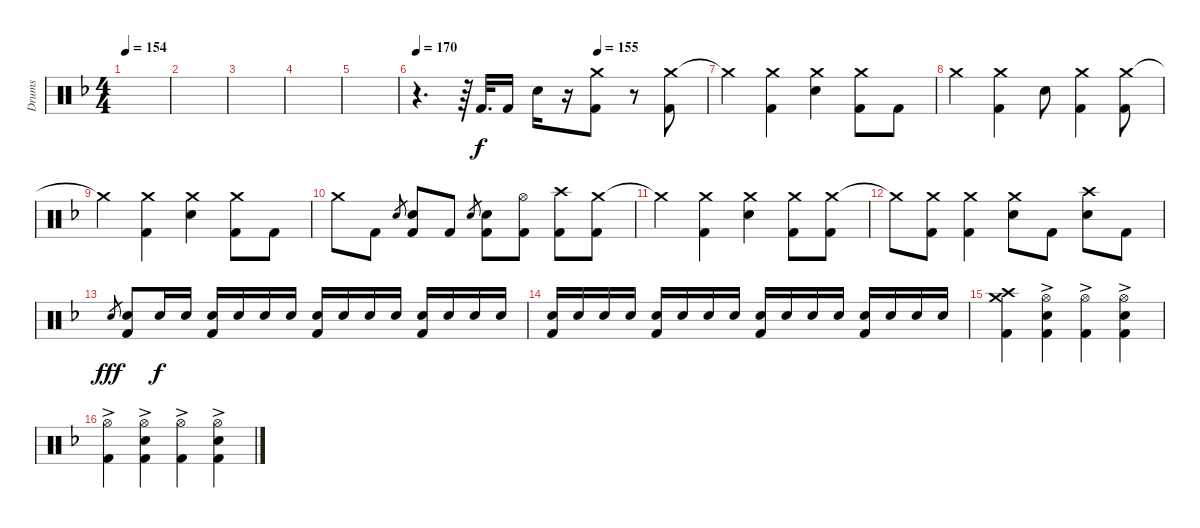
\track ("Drums" "Drums") {instrument percussion}
\staff {score}
\articulation defaults
\ts (4 4)
\tempo 154
\clef neutral
\ks dminor
|
|
|
|
|
\tempo 170
\tempo (155 0.625)
r.4{d} r.64 "Kick (hit) 2".32{d dy f} "Kick (hit) 2".16 "Snare (hit) 2".16 r.16 ("Crash medium (hit)" "Kick (hit) 2").8 r.8 ("Crash medium (hit)" "Kick (hit) 2").8 |
"Crash medium (hit)"{t}.4 ("Crash medium (hit)" "Kick (hit) 2").4 ("Crash medium (hit)" "Snare (hit) 2").4 ("Crash medium (hit)" "Kick (hit) 2").8 "Kick (hit) 2".8 |
"Crash medium (hit)".4 ("Crash medium (hit)" "Kick (hit) 2").4 "Snare (hit) 2".8 ("Crash medium (hit)" "Kick (hit) 2").4 ("Crash medium (hit)" "Kick (hit) 2").8 |
"Crash medium (hit)"{t}.4 ("Crash medium (hit)" "Kick (hit) 2").4 ("Crash medium (hit)" "Snare (hit) 2").4 ("Crash medium (hit)" "Kick (hit) 2").8 "Kick (hit) 2".8 |
"Crash medium (hit)".8 "Kick (hit) 2".8 "Snare (hit) 2".8{gr} ("Snare (hit) 2" "Kick (hit) 2").8 "Kick (hit) 2".8 "Snare (hit) 2".8{gr} ("Snare (hit) 2" "Kick (hit) 2").8 ("Hi-Hat (open)" "Kick (hit) 2").8 ("Crash high (hit)" "Kick (hit) 2").8 ("Crash medium (hit)" "Kick (hit) 2").8 |
"Crash medium (hit)"{t}.4 ("Crash medium (hit)" "Kick (hit) 2").4 ("Crash medium (hit)" "Snare (hit) 2").4 ("Crash medium (hit)" "Kick (hit) 2").8 ("Crash medium (hit)" "Kick (hit) 2").8 |
"Crash medium (hit)"{t}.8 ("Crash medium (hit)" "Kick (hit) 2").8 ("Crash medium (hit)" "Kick (hit) 2").4 ("Crash medium (hit)" "Snare (hit) 2").8 "Kick (hit) 2".8 ("Crash high (hit)" "Snare (hit) 2").8 "Kick (hit) 2".8 |
"Snare (hit) 2".8{gr dy fff} ("Snare (hit) 2" "Kick (hit) 2").8 "Snare (hit) 2".16{dy f volume 6} "Snare (hit) 2".16{volume 14} ("Snare (hit) 2" "Kick (hit) 2").16 "Snare (hit) 2".16 "Snare (hit) 2".16 "Snare (hit) 2".16 ("Snare (hit) 2" "Kick (hit) 2").16 "Snare (hit) 2".16 "Snare (hit) 2".16 "Snare (hit) 2".16 ("Snare (hit) 2" "Kick (hit) 2").16 "Snare (hit) 2".16 "Snare (hit) 2".16 "Snare (hit) 2".16 |
("Snare (hit) 2" "Kick (hit) 2").16 "Snare (hit) 2".16 "Snare (hit) 2".16 "Snare (hit) 2".16 ("Snare (hit) 2" "Kick (hit) 2").16 "Snare (hit) 2".16 "Snare (hit) 2".16 "Snare (hit) 2".16 ("Snare (hit) 2" "Kick (hit) 2").16 "Snare (hit) 2".16 "Snare (hit) 2".16 "Snare (hit) 2".16 ("Snare (hit) 2" "Kick (hit) 2").16 "Snare (hit) 2".16 "Snare (hit) 2".16 "Snare (hit) 2".16 |
("Crash high (hit)" "Crash medium (hit)" "Kick (hit) 2").4 ("Hi-Hat (open)"{ac} "Snare (hit) 2" "Kick (hit) 2").4 ("Hi-Hat (open)"{ac} "Kick (hit) 2").4 ("Hi-Hat (open)"{ac} "Snare (hit) 2" "Kick (hit) 2").4 |
("Hi-Hat (open)"{ac} "Kick (hit) 2").4 ("Hi-Hat (open)"{ac} "Snare (hit) 2" "Kick (hit) 2").4 ("Hi-Hat (open)"{ac} "Kick (hit) 2").4 ("Hi-Hat (open)"{ac} "Snare (hit) 2" "Kick (hit) 2").4
